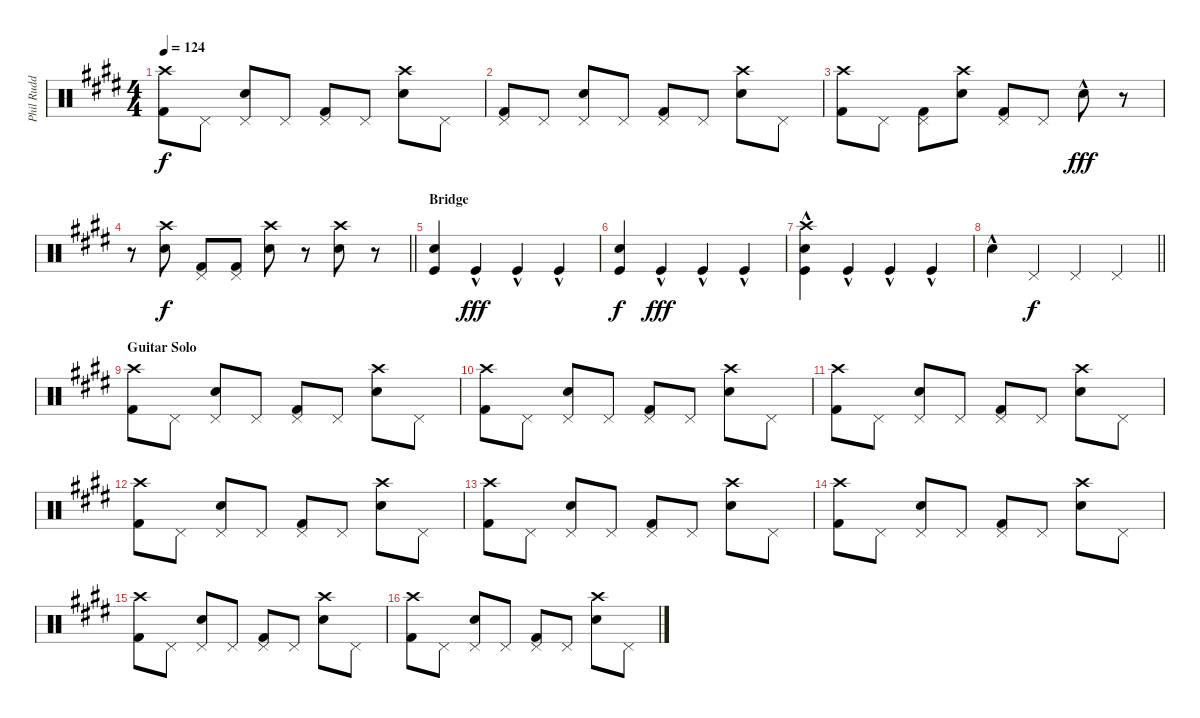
\track ("Phil Rudd (Drums)" "Phil Rudd ") {instrument percussion}
\staff {score}
\articulation defaults
\ts (4 4)
\tempo 124
\clef neutral
\ks e
("Crash high (hit)" "Kick (hit) 2").8{dy f} "Pedal Hi-Hat (hit)".8 ("Pedal Hi-Hat (hit)" "Snare (hit) 2").8 "Pedal Hi-Hat (hit)".8 ("Pedal Hi-Hat (hit)" "Kick (hit) 2").8 "Pedal Hi-Hat (hit)".8 ("Crash high (hit)" "Snare (hit) 2").8 "Pedal Hi-Hat (hit)".8 |
("Pedal Hi-Hat (hit)" "Kick (hit) 2").8 "Pedal Hi-Hat (hit)".8 ("Pedal Hi-Hat (hit)" "Snare (hit) 2").8 "Pedal Hi-Hat (hit)".8 ("Pedal Hi-Hat (hit)" "Kick (hit) 2").8 "Pedal Hi-Hat (hit)".8 ("Crash high (hit)" "Snare (hit) 2").8 "Pedal Hi-Hat (hit)".8 |
("Crash high (hit)" "Kick (hit) 2").8 "Pedal Hi-Hat (hit)".8 ("Pedal Hi-Hat (hit)" "Kick (hit) 2").8 ("Crash high (hit)" "Snare (hit) 2").8 ("Pedal Hi-Hat (hit)" "Kick (hit) 2").8 "Pedal Hi-Hat (hit)".8 "Electric Snare (hit)"{hac}.8{dy fff} r.8 |
\barLineRight lightlight
r.8 ("Crash high (hit)" "Snare (hit) 2").8{dy f} ("Pedal Hi-Hat (hit)" "Kick (hit) 2").8 ("Pedal Hi-Hat (hit)" "Kick (hit) 2").8 ("Crash high (hit)" "Snare (hit) 2").8 r.8 ("Crash high (hit)" "Snare (hit) 2").8 r.8 |
\section ("" "Bridge")
("Electric Snare (hit)" "Kick (hit)").4 "Kick (hit)"{hac}.4{dy fff} "Kick (hit)"{hac}.4 "Kick (hit)"{hac}.4 |
("Electric Snare (hit)" "Kick (hit)").4{dy f} "Kick (hit)"{hac}.4{dy fff} "Kick (hit)"{hac}.4 "Kick (hit)"{hac}.4 |
("Crash high (hit)"{hac} "Snare (hit) 2" "Kick (hit)").4 "Kick (hit)"{hac}.4 "Kick (hit)"{hac}.4 "Kick (hit)"{hac}.4 |
\barLineRight lightlight "Electric Snare (hit)"{hac}.4 "Pedal Hi-Hat (hit)".4{dy f} "Pedal Hi-Hat (hit)".4 "Pedal Hi-Hat (hit)".4
|
\section ("" "Guitar Solo")
("Crash high (hit)" "Kick (hit) 2").8 "Pedal Hi-Hat (hit)".8 ("Pedal Hi-Hat (hit)" "Snare (hit) 2").8 "Pedal Hi-Hat (hit)".8 ("Pedal Hi-Hat (hit)" "Kick (hit) 2").8 "Pedal Hi-Hat (hit)".8 ("Crash high (hit)" "Snare (hit) 2").8 "Pedal Hi-Hat (hit)".8 |
("Crash high (hit)" "Kick (hit) 2").8 "Pedal Hi-Hat (hit)".8 ("Pedal Hi-Hat (hit)" "Snare (hit) 2").8 "Pedal Hi-Hat (hit)".8 ("Pedal Hi-Hat (hit)" "Kick (hit) 2").8 "Pedal Hi-Hat (hit)".8 ("Crash high (hit)" "Snare (hit) 2").8 "Pedal Hi-Hat (hit)".8 |
("Crash high (hit)" "Kick (hit) 2").8 "Pedal Hi-Hat (hit)".8 ("Pedal Hi-Hat (hit)" "Snare (hit) 2").8 "Pedal Hi-Hat (hit)".8 ("Pedal Hi-Hat (hit)" "Kick (hit) 2").8 "Pedal Hi-Hat (hit)".8 ("Crash high (hit)" "Snare (hit) 2").8 "Pedal Hi-Hat (hit)".8 |
("Crash high (hit)" "Kick (hit) 2").8 "Pedal Hi-Hat (hit)".8 ("Pedal Hi-Hat (hit)" "Snare (hit) 2").8 "Pedal Hi-Hat (hit)".8 ("Pedal Hi-Hat (hit)" "Kick (hit) 2").8 "Pedal Hi-Hat (hit)".8 ("Crash high (hit)" "Snare (hit) 2").8 "Pedal Hi-Hat (hit)".8 |
("Crash high (hit)" "Kick (hit) 2").8 "Pedal Hi-Hat (hit)".8 ("Pedal Hi-Hat (hit)" "Snare (hit) 2").8 "Pedal Hi-Hat (hit)".8 ("Pedal Hi-Hat (hit)" "Kick (hit) 2").8 "Pedal Hi-Hat (hit)".8 ("Crash high (hit)" "Snare (hit) 2").8 "Pedal Hi-Hat (hit)".8 |
("Crash high (hit)" "Kick (hit) 2").8 "Pedal Hi-Hat (hit)".8 ("Pedal Hi-Hat (hit)" "Snare (hit) 2").8 "Pedal Hi-Hat (hit)".8 ("Pedal Hi-Hat (hit)" "Kick (hit) 2").8 "Pedal Hi-Hat (hit)".8 ("Crash high (hit)" "Snare (hit) 2").8 "Pedal Hi-Hat (hit)".8 |
("Crash high (hit)" "Kick (hit) 2").8 "Pedal Hi-Hat (hit)".8 ("Pedal Hi-Hat (hit)" "Snare (hit) 2").8 "Pedal Hi-Hat (hit)".8 ("Pedal Hi-Hat (hit)" "Kick (hit) 2").8 "Pedal Hi-Hat (hit)".8 ("Crash high (hit)" "Snare (hit) 2").8 "Pedal Hi-Hat (hit)".8 |
("Crash high (hit)" "Kick (hit) 2").8 "Pedal Hi-Hat (hit)".8 ("Pedal Hi-Hat (hit)" "Snare (hit) 2").8 "Pedal Hi-Hat (hit)".8 ("Pedal Hi-Hat (hit)" "Kick (hit) 2").8 "Pedal Hi-Hat (hit)".8 ("Crash high (hit)" "Snare (hit) 2").8 "Pedal Hi-Hat (hit)".8
